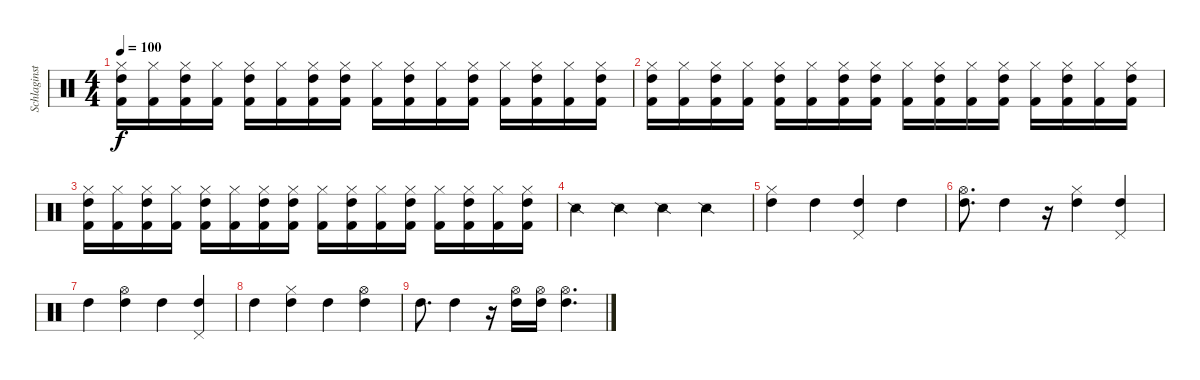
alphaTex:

\track ("Schlaginstrumente - Auswahl" "Schlaginst") {instrument percussion}
\staff {score}
\articulation defaults
\ts (4 4)
\tempo 100
\clef neutral
\ks c
("Hi-Hat (closed)" "Kick (hit) 2" "High Tom (hit)").16{dy f} ("Hi-Hat (closed)" "Kick (hit) 2").16 ("Hi-Hat (closed)" "Kick (hit) 2" "High Tom (hit)").16 ("Hi-Hat (closed)" "Kick (hit) 2").16 ("Hi-Hat (closed)" "Kick (hit) 2" "High Tom (hit)").16 ("Hi-Hat (closed)" "Kick (hit) 2").16 ("Hi-Hat (closed)" "Kick (hit) 2" "High Tom (hit)").16 ("Hi-Hat (closed)" "Kick (hit) 2" "High Tom (hit)").16 ("Hi-Hat (closed)" "Kick (hit) 2").16 ("Hi-Hat (closed)" "Kick (hit) 2" "High Tom (hit)").16 ("Hi-Hat (closed)" "Kick (hit) 2").16 ("Hi-Hat (closed)" "Kick (hit) 2" "High Tom (hit)").16 ("Hi-Hat (closed)" "Kick (hit) 2").16 ("Hi-Hat (closed)" "Kick (hit) 2" "High Tom (hit)").16 ("Hi-Hat (closed)" "Kick (hit) 2").16 ("Hi-Hat (closed)" "Kick (hit) 2" "High Tom (hit)").16 |
("Hi-Hat (closed)" "Kick (hit) 2" "High Tom (hit)").16 ("Hi-Hat (closed)" "Kick (hit) 2").16 ("Hi-Hat (closed)" "Kick (hit) 2" "High Tom (hit)").16 ("Hi-Hat (closed)" "Kick (hit) 2").16 ("Hi-Hat (closed)" "Kick (hit) 2" "High Tom (hit)").16 ("Hi-Hat (closed)" "Kick (hit) 2").16 ("Hi-Hat (closed)" "Kick (hit) 2" "High Tom (hit)").16 ("Hi-Hat (closed)" "Kick (hit) 2" "High Tom (hit)").16 ("Hi-Hat (closed)" "Kick (hit) 2").16 ("Hi-Hat (closed)" "Kick (hit) 2" "High Tom (hit)").16 ("Hi-Hat (closed)" "Kick (hit) 2").16 ("Hi-Hat (closed)" "Kick (hit) 2" "High Tom (hit)").16 ("Hi-Hat (closed)" "Kick (hit) 2").16 ("Hi-Hat (closed)" "Kick (hit) 2" "High Tom (hit)").16 ("Hi-Hat (closed)" "Kick (hit) 2").16 ("Hi-Hat (closed)" "Kick (hit) 2" "High Tom (hit)").16 |
("Hi-Hat (closed)" "Kick (hit) 2" "High Tom (hit)").16 ("Hi-Hat (closed)" "Kick (hit) 2").16 ("Hi-Hat (closed)" "Kick (hit) 2" "High Tom (hit)").16 ("Hi-Hat (closed)" "Kick (hit) 2").16 ("Hi-Hat (closed)" "Kick (hit) 2" "High Tom (hit)").16 ("Hi-Hat (closed)" "Kick (hit) 2").16 ("Hi-Hat (closed)" "Kick (hit) 2" "High Tom (hit)").16 ("Hi-Hat (closed)" "Kick (hit) 2" "High Tom (hit)").16 ("Hi-Hat (closed)" "Kick (hit) 2").16 ("Hi-Hat (closed)" "Kick (hit) 2" "High Tom (hit)").16 ("Hi-Hat (closed)" "Kick (hit) 2").16 ("Hi-Hat (closed)" "Kick (hit) 2" "High Tom (hit)").16 ("Hi-Hat (closed)" "Kick (hit) 2").16 ("Hi-Hat (closed)" "Kick (hit) 2" "High Tom (hit)").16 ("Hi-Hat (closed)" "Kick (hit) 2").16 ("Hi-Hat (closed)" "Kick (hit) 2" "High Tom (hit)").16 |
"Snare (side stick) 2".4 "Snare (side stick) 2".4 "Snare (side stick) 2".4 "Snare (side stick) 2".4 |
("Hi-Hat (closed)" "High Tom (hit)").4 "High Tom (hit)".4 ("Pedal Hi-Hat (hit)" "High Tom (hit)").4 "High Tom (hit)".4 |
("Hi-Hat (open)" "High Tom (hit)").8{d} "High Tom (hit)".4 r.16 ("Hi-Hat (closed)" "High Tom (hit)").4 ("Pedal Hi-Hat (hit)" "High Tom (hit)").4 |
"High Tom (hit)".4 ("Hi-Hat (open)" "High Tom (hit)").4 "High Tom (hit)".4 ("Pedal Hi-Hat (hit)" "High Tom (hit)").4 |
"High Tom (hit)".4 ("Hi-Hat (closed)" "High Tom (hit)").4 "High Tom (hit)".4 ("Hi-Hat (open)" "High Tom (hit)").4 |
"High Tom (hit)".8{d} "High Tom (hit)".4 r.16 ("Hi-Hat (open)" "High Tom (hit)").16 ("Hi-Hat (open)" "High Tom (hit)").16 ("Hi-Hat (open)" "High Tom (hit)").4{d}
